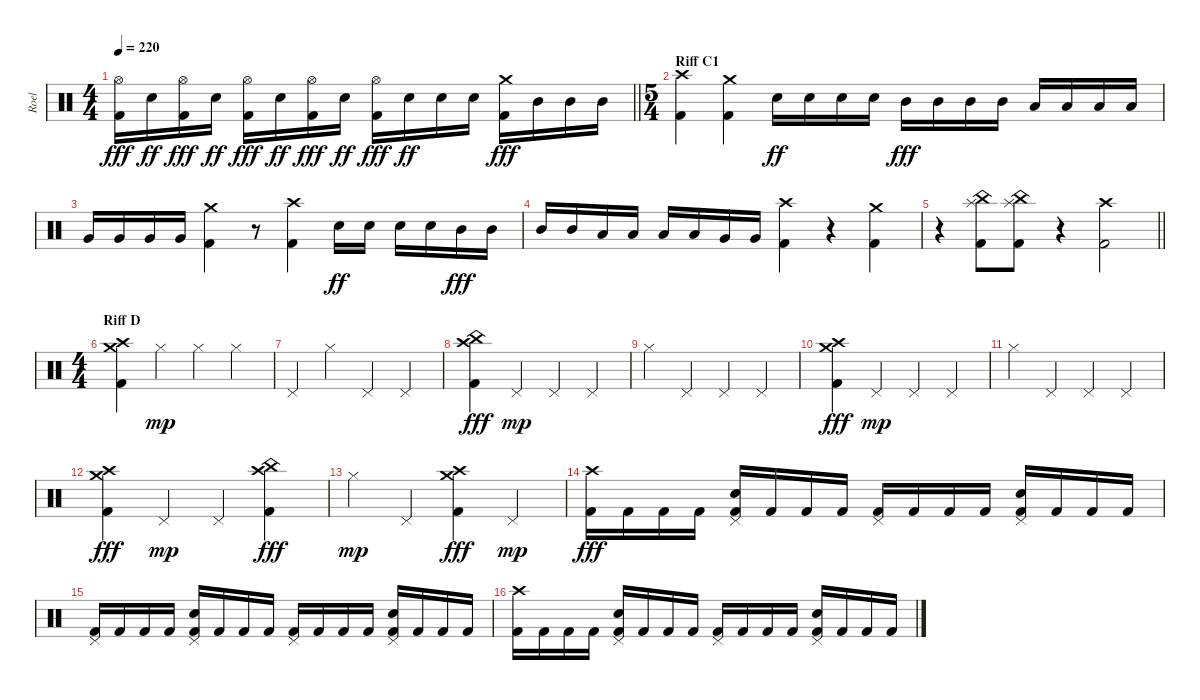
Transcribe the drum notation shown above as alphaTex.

\track ("Roel" "Roel") {instrument percussion}
\staff {score}
\articulation defaults
\ts (4 4)
\tempo 220
\clef neutral
\barLineRight lightlight
\ks c
("Hi-Hat (open)" "Kick (hit) 2").16{dy fff} "Snare (hit) 2".16{dy ff} ("Hi-Hat (open)" "Kick (hit) 2").16{dy fff} "Snare (hit) 2".16{dy ff} ("Hi-Hat (open)" "Kick (hit) 2").16{dy fff} "Snare (hit) 2".16{dy ff} ("Hi-Hat (open)" "Kick (hit) 2").16{dy fff} "Snare (hit) 2".16{dy ff} ("Hi-Hat (open)" "Kick (hit) 2").16{dy fff} "Snare (hit) 2".16{dy ff} "Snare (hit) 2".16 "Snare (hit) 2".16 ("Crash medium (hit)" "Kick (hit) 2").16{dy fff} "Mid Tom (hit)".16 "Mid Tom (hit)".16 "Mid Tom (hit)".16 |
\ts (5 4)
\section ("" "Riff C1")
("Crash high (hit)" "Kick (hit) 2").4 ("Crash medium (hit)" "Kick (hit) 2").4 "Snare (hit) 2".16{dy ff} "Snare (hit) 2".16 "Snare (hit) 2".16 "Snare (hit) 2".16 "Mid Tom (hit)".16{dy fff} "Mid Tom (hit)".16 "Mid Tom (hit)".16 "Mid Tom (hit)".16 "Low Tom (hit)".16 "Low Tom (hit)".16 "Low Tom (hit)".16 "Low Tom (hit)".16 |
"Very Low Tom (hit)".16 "Very Low Tom (hit)".16 "Very Low Tom (hit)".16 "Very Low Tom (hit)".16 ("Crash medium (hit)" "Kick (hit) 2").4 r.8 ("Crash high (hit)" "Kick (hit) 2").4 "Snare (hit) 2".16{dy ff} "Snare (hit) 2".16 "Snare (hit) 2".16 "Snare (hit) 2".16 "Mid Tom (hit)".16{dy fff} "Mid Tom (hit)".16 |
"Mid Tom (hit)".16 "Mid Tom (hit)".16 "Low Tom (hit)".16 "Low Tom (hit)".16 "Low Tom (hit)".16 "Low Tom (hit)".16 "Very Low Tom (hit)".16 "Very Low Tom (hit)".16 ("Crash high (hit)" "Kick (hit) 2").4 r.4 ("Crash medium (hit)" "Kick (hit) 2").4 |
\barLineRight lightlight
r.4 ("Splash (hit)" "China (hit)" "Kick (hit) 2").8 ("Splash (hit)" "China (hit)" "Kick (hit) 2").8 r.4 ("Crash high (hit)" "Kick (hit) 2").2 |
\ts (4 4)
\section ("" "Riff D")
("Crash high (hit)" "Crash medium (hit)" "Kick (hit) 2").4 "Hi-Hat (closed)".4{dy mp} "Hi-Hat (closed)".4 "Hi-Hat (closed)".4 |
"Pedal Hi-Hat (hit)".4 "Hi-Hat (closed)".4 "Pedal Hi-Hat (hit)".4 "Pedal Hi-Hat (hit)".4 |
("Crash high (hit)" "China (hit)" "Kick (hit) 2").4{dy fff} "Pedal Hi-Hat (hit)".4{dy mp} "Pedal Hi-Hat (hit)".4 "Pedal Hi-Hat (hit)".4 |
"Hi-Hat (closed)".4 "Pedal Hi-Hat (hit)".4 "Pedal Hi-Hat (hit)".4 "Pedal Hi-Hat (hit)".4 |
("Crash high (hit)" "Crash medium (hit)" "Kick (hit) 2").4{dy fff} "Pedal Hi-Hat (hit)".4{dy mp} "Pedal Hi-Hat (hit)".4 "Pedal Hi-Hat (hit)".4 |
"Hi-Hat (closed)".4 "Pedal Hi-Hat (hit)".4 "Pedal Hi-Hat (hit)".4 "Pedal Hi-Hat (hit)".4 |
("Crash high (hit)" "Crash medium (hit)" "Kick (hit) 2").4{dy fff} "Pedal Hi-Hat (hit)".4{dy mp} "Pedal Hi-Hat (hit)".4 ("Crash high (hit)" "China (hit)" "Kick (hit) 2").4{dy fff} |
"Hi-Hat (closed)".4{dy mp} "Pedal Hi-Hat (hit)".4 ("Crash high (hit)" "Crash medium (hit)" "Kick (hit) 2").4{dy fff} "Pedal Hi-Hat (hit)".4{dy mp} |
("Crash high (hit)" "Kick (hit) 2").16{dy fff} "Kick (hit) 2".16 "Kick (hit) 2".16 "Kick (hit) 2".16 ("Pedal Hi-Hat (hit)" "Snare (hit) 2" "Kick (hit) 2").16 "Kick (hit) 2".16 "Kick (hit) 2".16 "Kick (hit) 2".16 ("Pedal Hi-Hat (hit)" "Kick (hit) 2").16 "Kick (hit) 2".16 "Kick (hit) 2".16 "Kick (hit) 2".16 ("Pedal Hi-Hat (hit)" "Snare (hit) 2" "Kick (hit) 2").16 "Kick (hit) 2".16 "Kick (hit) 2".16 "Kick (hit) 2".16 |
("Pedal Hi-Hat (hit)" "Kick (hit) 2").16 "Kick (hit) 2".16 "Kick (hit) 2".16 "Kick (hit) 2".16 ("Pedal Hi-Hat (hit)" "Snare (hit) 2" "Kick (hit) 2").16 "Kick (hit) 2".16 "Kick (hit) 2".16 "Kick (hit) 2".16 ("Pedal Hi-Hat (hit)" "Kick (hit) 2").16 "Kick (hit) 2".16 "Kick (hit) 2".16 "Kick (hit) 2".16 ("Pedal Hi-Hat (hit)" "Snare (hit) 2" "Kick (hit) 2").16 "Kick (hit) 2".16 "Kick (hit) 2".16 "Kick (hit) 2".16 |
("Crash high (hit)" "Kick (hit) 2").16 "Kick (hit) 2".16 "Kick (hit) 2".16 "Kick (hit) 2".16 ("Pedal Hi-Hat (hit)" "Snare (hit) 2" "Kick (hit) 2").16 "Kick (hit) 2".16 "Kick (hit) 2".16 "Kick (hit) 2".16 ("Pedal Hi-Hat (hit)" "Kick (hit) 2").16 "Kick (hit) 2".16 "Kick (hit) 2".16 "Kick (hit) 2".16 ("Pedal Hi-Hat (hit)" "Snare (hit) 2" "Kick (hit) 2").16 "Kick (hit) 2".16 "Kick (hit) 2".16 "Kick (hit) 2".16
